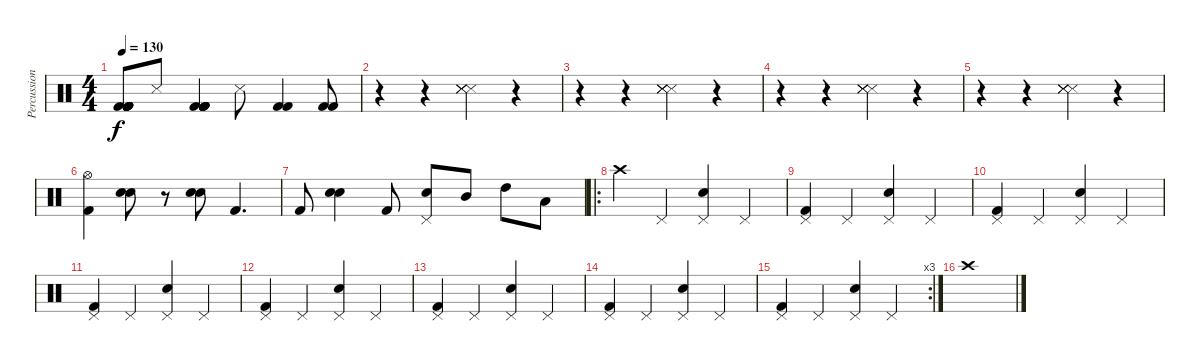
\track ("Percussion 2" "Percussion") {instrument percussion}
\staff {score}
\articulation defaults
\ts (4 4)
\tempo 130
\clef neutral
\ks c
("Kick (hit) 2" "Kick (hit) 2" "Kick (hit) 2" "Kick (hit) 2" "Kick (hit) 2" "Kick (hit) 2").8{dy f} "Snare (side stick) 3".8 ("Kick (hit) 2" "Kick (hit) 2" "Kick (hit) 2" "Kick (hit) 2" "Kick (hit) 2" "Kick (hit) 2").4 "Snare (side stick) 3".8 ("Kick (hit) 2" "Kick (hit) 2").4 ("Kick (hit) 2" "Kick (hit) 2").8 |
r.4 r.4 ("Snare (side stick) 3" "Snare (side stick) 3" "Snare (side stick) 3" "Snare (side stick) 3").4 r.4 |
r.4 r.4 ("Snare (side stick) 3" "Snare (side stick) 3" "Snare (side stick) 3" "Snare (side stick) 3").4 r.4 |
r.4 r.4 ("Snare (side stick) 3" "Snare (side stick) 3" "Snare (side stick) 3" "Snare (side stick) 3").4 r.4 |
r.4 r.4 ("Snare (side stick) 3" "Snare (side stick) 3" "Snare (side stick) 3" "Snare (side stick) 3").4 r.4 |
("Hi-Hat (open)" "Kick (hit) 2").4 ("Electric Snare (hit)" "Snare (hit) 2").8 r.8 ("Electric Snare (hit)" "Snare (hit) 2").8 "Kick (hit) 2".4{d} |
"Kick (hit) 2".8 ("Electric Snare (hit)" "Snare (hit) 2").4 "Kick (hit) 2".8 ("Pedal Hi-Hat (hit)" "Snare (hit) 2").8 "Mid Tom (hit)".8 "High Tom (hit)".8 "Low Tom (hit)".8 |
\ro "Crash high (hit)".4 "Pedal Hi-Hat (hit)".4
("Pedal Hi-Hat (hit)" "Snare (hit) 2").4 "Pedal Hi-Hat (hit)".4 |
("Pedal Hi-Hat (hit)" "Kick (hit) 2").4 "Pedal Hi-Hat (hit)".4 ("Pedal Hi-Hat (hit)" "Snare (hit) 2").4 "Pedal Hi-Hat (hit)".4 |
("Pedal Hi-Hat (hit)" "Kick (hit) 2").4 "Pedal Hi-Hat (hit)".4 ("Pedal Hi-Hat (hit)" "Snare (hit) 2").4 "Pedal Hi-Hat (hit)".4 |
("Pedal Hi-Hat (hit)" "Kick (hit) 2").4 "Pedal Hi-Hat (hit)".4 ("Pedal Hi-Hat (hit)" "Snare (hit) 2").4 "Pedal Hi-Hat (hit)".4 |
("Pedal Hi-Hat (hit)" "Kick (hit) 2").4 "Pedal Hi-Hat (hit)".4 ("Pedal Hi-Hat (hit)" "Snare (hit) 2").4 "Pedal Hi-Hat (hit)".4 |
("Pedal Hi-Hat (hit)" "Kick (hit) 2").4 "Pedal Hi-Hat (hit)".4 ("Pedal Hi-Hat (hit)" "Snare (hit) 2").4 "Pedal Hi-Hat (hit)".4 |
("Pedal Hi-Hat (hit)" "Kick (hit) 2").4 "Pedal Hi-Hat (hit)".4 ("Pedal Hi-Hat (hit)" "Snare (hit) 2").4 "Pedal Hi-Hat (hit)".4 |
\rc 3
("Pedal Hi-Hat (hit)" "Kick (hit) 2").4 "Pedal Hi-Hat (hit)".4 ("Pedal Hi-Hat (hit)" "Snare (hit) 2").4 "Pedal Hi-Hat (hit)".4 |
"Crash high (hit)".1
